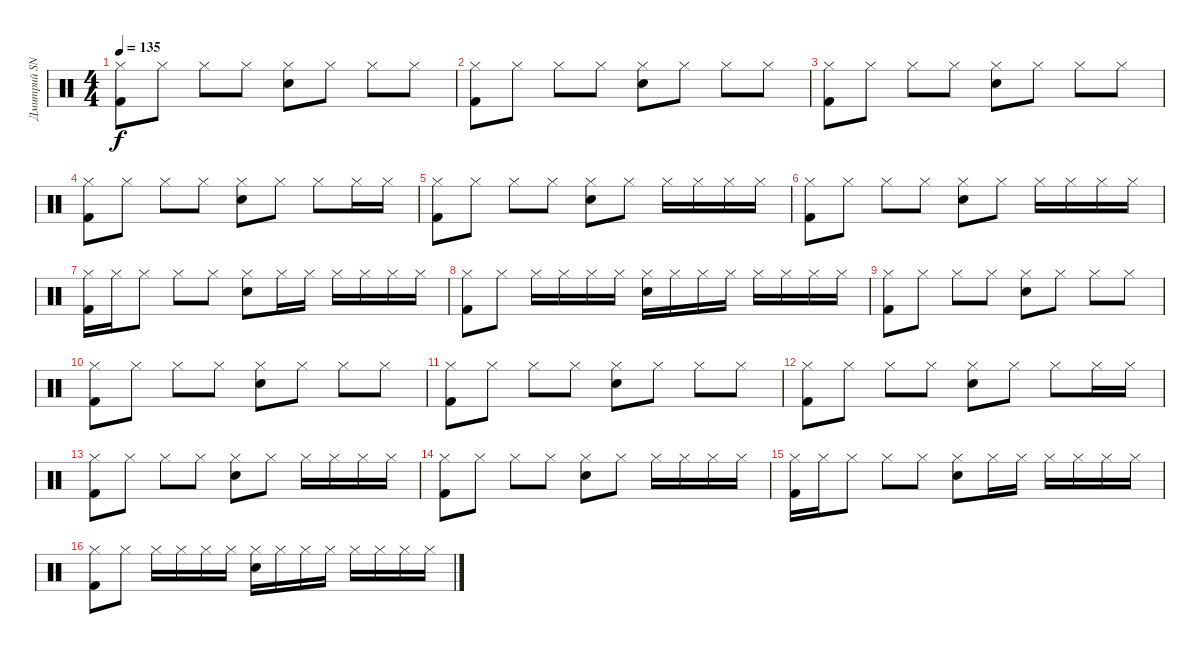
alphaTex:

\track ("Дмитрий SNAKE Хакимов" "Дмитрий SN") {instrument percussion}
\staff {score}
\articulation defaults
\ts (4 4)
\tempo 135
\clef neutral
\ks c
("Hi-Hat (closed)" "Kick (hit) 2").8{dy f} "Hi-Hat (closed)".8 "Hi-Hat (closed)".8 "Hi-Hat (closed)".8 ("Hi-Hat (closed)" "Electric Snare (hit)").8 "Hi-Hat (closed)".8 "Hi-Hat (closed)".8 "Hi-Hat (closed)".8 |
("Hi-Hat (closed)" "Kick (hit) 2").8 "Hi-Hat (closed)".8 "Hi-Hat (closed)".8 "Hi-Hat (closed)".8 ("Hi-Hat (closed)" "Electric Snare (hit)").8 "Hi-Hat (closed)".8 "Hi-Hat (closed)".8 "Hi-Hat (closed)".8 |
("Hi-Hat (closed)" "Kick (hit) 2").8 "Hi-Hat (closed)".8 "Hi-Hat (closed)".8 "Hi-Hat (closed)".8 ("Hi-Hat (closed)" "Electric Snare (hit)").8 "Hi-Hat (closed)".8 "Hi-Hat (closed)".8 "Hi-Hat (closed)".8 |
("Hi-Hat (closed)" "Kick (hit) 2").8 "Hi-Hat (closed)".8 "Hi-Hat (closed)".8 "Hi-Hat (closed)".8 ("Hi-Hat (closed)" "Electric Snare (hit)").8 "Hi-Hat (closed)".8 "Hi-Hat (closed)".8 "Hi-Hat (closed)".16 "Hi-Hat (closed)".16 |
("Hi-Hat (closed)" "Kick (hit) 2").8 "Hi-Hat (closed)".8 "Hi-Hat (closed)".8 "Hi-Hat (closed)".8 ("Hi-Hat (closed)" "Electric Snare (hit)").8 "Hi-Hat (closed)".8 "Hi-Hat (closed)".16 "Hi-Hat (closed)".16 "Hi-Hat (closed)".16 "Hi-Hat (closed)".16 |
("Hi-Hat (closed)" "Kick (hit) 2").8 "Hi-Hat (closed)".8 "Hi-Hat (closed)".8 "Hi-Hat (closed)".8 ("Hi-Hat (closed)" "Electric Snare (hit)").8 "Hi-Hat (closed)".8 "Hi-Hat (closed)".16 "Hi-Hat (closed)".16 "Hi-Hat (closed)".16 "Hi-Hat (closed)".16 |
("Hi-Hat (closed)" "Kick (hit) 2").16 "Hi-Hat (closed)".16 "Hi-Hat (closed)".8 "Hi-Hat (closed)".8 "Hi-Hat (closed)".8 ("Hi-Hat (closed)" "Electric Snare (hit)").8 "Hi-Hat (closed)".16 "Hi-Hat (closed)".16 "Hi-Hat (closed)".16 "Hi-Hat (closed)".16 "Hi-Hat (closed)".16 "Hi-Hat (closed)".16 |
("Hi-Hat (closed)" "Kick (hit) 2").8 "Hi-Hat (closed)".8 "Hi-Hat (closed)".16 "Hi-Hat (closed)".16 "Hi-Hat (closed)".16 "Hi-Hat (closed)".16 ("Hi-Hat (closed)" "Electric Snare (hit)").16 "Hi-Hat (closed)".16 "Hi-Hat (closed)".16 "Hi-Hat (closed)".16 "Hi-Hat (closed)".16 "Hi-Hat (closed)".16 "Hi-Hat (closed)".16 "Hi-Hat (closed)".16 |
("Hi-Hat (closed)" "Kick (hit) 2").8 "Hi-Hat (closed)".8 "Hi-Hat (closed)".8 "Hi-Hat (closed)".8 ("Hi-Hat (closed)" "Electric Snare (hit)").8 "Hi-Hat (closed)".8 "Hi-Hat (closed)".8 "Hi-Hat (closed)".8 |
("Hi-Hat (closed)" "Kick (hit) 2").8 "Hi-Hat (closed)".8 "Hi-Hat (closed)".8 "Hi-Hat (closed)".8 ("Hi-Hat (closed)" "Electric Snare (hit)").8 "Hi-Hat (closed)".8 "Hi-Hat (closed)".8 "Hi-Hat (closed)".8 |
("Hi-Hat (closed)" "Kick (hit) 2").8 "Hi-Hat (closed)".8 "Hi-Hat (closed)".8 "Hi-Hat (closed)".8 ("Hi-Hat (closed)" "Electric Snare (hit)").8 "Hi-Hat (closed)".8 "Hi-Hat (closed)".8 "Hi-Hat (closed)".8 |
("Hi-Hat (closed)" "Kick (hit) 2").8 "Hi-Hat (closed)".8 "Hi-Hat (closed)".8 "Hi-Hat (closed)".8 ("Hi-Hat (closed)" "Electric Snare (hit)").8 "Hi-Hat (closed)".8 "Hi-Hat (closed)".8 "Hi-Hat (closed)".16 "Hi-Hat (closed)".16 |
("Hi-Hat (closed)" "Kick (hit) 2").8 "Hi-Hat (closed)".8 "Hi-Hat (closed)".8 "Hi-Hat (closed)".8 ("Hi-Hat (closed)" "Electric Snare (hit)").8 "Hi-Hat (closed)".8 "Hi-Hat (closed)".16 "Hi-Hat (closed)".16 "Hi-Hat (closed)".16 "Hi-Hat (closed)".16 |
("Hi-Hat (closed)" "Kick (hit) 2").8 "Hi-Hat (closed)".8 "Hi-Hat (closed)".8 "Hi-Hat (closed)".8 ("Hi-Hat (closed)" "Electric Snare (hit)").8 "Hi-Hat (closed)".8 "Hi-Hat (closed)".16 "Hi-Hat (closed)".16 "Hi-Hat (closed)".16 "Hi-Hat (closed)".16 |
("Hi-Hat (closed)" "Kick (hit) 2").16 "Hi-Hat (closed)".16 "Hi-Hat (closed)".8 "Hi-Hat (closed)".8 "Hi-Hat (closed)".8 ("Hi-Hat (closed)" "Electric Snare (hit)").8 "Hi-Hat (closed)".16 "Hi-Hat (closed)".16 "Hi-Hat (closed)".16 "Hi-Hat (closed)".16 "Hi-Hat (closed)".16 "Hi-Hat (closed)".16 |
("Hi-Hat (closed)" "Kick (hit) 2").8 "Hi-Hat (closed)".8 "Hi-Hat (closed)".16 "Hi-Hat (closed)".16 "Hi-Hat (closed)".16 "Hi-Hat (closed)".16 ("Hi-Hat (closed)" "Electric Snare (hit)").16 "Hi-Hat (closed)".16 "Hi-Hat (closed)".16 "Hi-Hat (closed)".16 "Hi-Hat (closed)".16 "Hi-Hat (closed)".16 "Hi-Hat (closed)".16 "Hi-Hat (closed)".16
